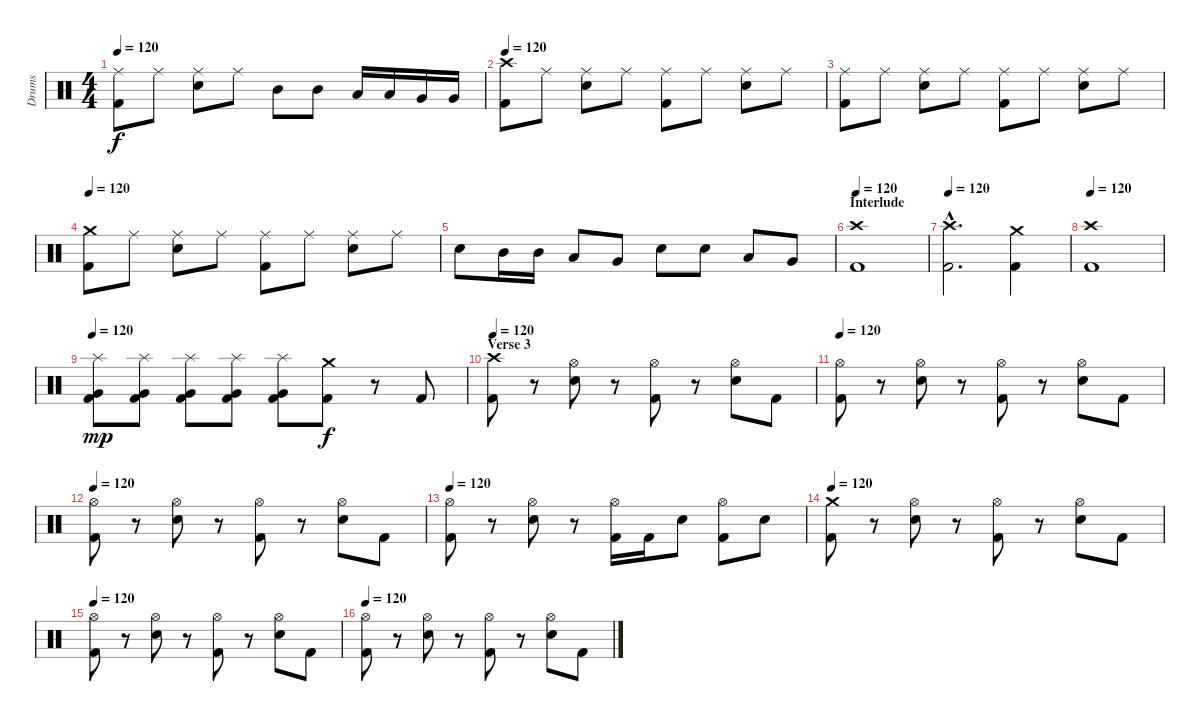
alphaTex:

\track ("Drums" "Drums") {instrument percussion}
\staff {score}
\articulation defaults
\ts (4 4)
\tempo 120
\clef neutral
\ks c
("Ride (middle)" "Kick (hit) 2").8{dy f} "Ride (middle)".8 ("Ride (middle)" "Electric Snare (hit)").8 "Ride (middle)".8 "Mid Tom (hit)".8 "Mid Tom (hit)".8 "Low Tom (hit)".16 "Low Tom (hit)".16 "Very Low Tom (hit)".16 "Very Low Tom (hit)".16 |
\tempo 120
("Crash high (hit)" "Kick (hit) 2").8 "Ride (middle)".8 ("Ride (middle)" "Electric Snare (hit)").8 "Ride (middle)".8 ("Ride (middle)" "Kick (hit) 2").8 "Ride (middle)".8 ("Ride (middle)" "Electric Snare (hit)").8 "Ride (middle)".8 |
("Ride (middle)" "Kick (hit) 2").8 "Ride (middle)".8 ("Ride (middle)" "Electric Snare (hit)").8 "Ride (middle)".8 ("Ride (middle)" "Kick (hit) 2").8 "Ride (middle)".8 ("Ride (middle)" "Electric Snare (hit)").8 "Ride (middle)".8 |
\tempo 120
("Crash medium (hit)" "Kick (hit) 2").8 "Ride (middle)".8 ("Ride (middle)" "Electric Snare (hit)").8 "Ride (middle)".8 ("Ride (middle)" "Kick (hit) 2").8 "Ride (middle)".8 ("Ride (middle)" "Electric Snare (hit)").8 "Ride (middle)".8 |
"Electric Snare (hit)".8 "Mid Tom (hit)".16 "Mid Tom (hit)".16 "Low Tom (hit)".8 "Very Low Tom (hit)".8 "Electric Snare (hit)".8 "Electric Snare (hit)".8 "Low Tom (hit)".8 "Very Low Tom (hit)".8 |
\section ("" "Interlude")
\tempo 120
("Crash high (hit)" "Kick (hit) 2").1 |
\tempo 120
("Crash high (hit)"{hac} "Kick (hit) 2"{hac}).2{d} ("Crash medium (hit)" "Kick (hit) 2").4 |
\tempo 120
("Crash high (hit)" "Kick (hit) 2").1 |
\tempo 120
("Splash (hit)" "Very Low Tom (hit)" "Kick (hit) 2").8{dy mp} ("Splash (hit)" "Very Low Tom (hit)" "Kick (hit) 2").8 ("Splash (hit)" "Very Low Tom (hit)" "Kick (hit) 2").8 ("Splash (hit)" "Very Low Tom (hit)" "Kick (hit) 2").8 ("Splash (hit)" "Very Low Tom (hit)" "Kick (hit) 2").8 ("Crash medium (hit)" "Kick (hit) 2").8{dy f} r.8 "Kick (hit) 2".8 |
\section ("" "Verse 3")
\tempo 120
("Crash high (hit)" "Kick (hit) 2").8 r.8 ("Hi-Hat (open)" "Electric Snare (hit)").8 r.8 ("Hi-Hat (open)" "Kick (hit) 2").8 r.8 ("Hi-Hat (open)" "Electric Snare (hit)").8 "Kick (hit) 2".8 |
\tempo 120
("Hi-Hat (open)" "Kick (hit) 2").8 r.8 ("Hi-Hat (open)" "Electric Snare (hit)").8 r.8 ("Hi-Hat (open)" "Kick (hit) 2").8 r.8 ("Hi-Hat (open)" "Electric Snare (hit)").8 "Kick (hit) 2".8 |
\tempo 120
("Hi-Hat (open)" "Kick (hit) 2").8 r.8 ("Hi-Hat (open)" "Electric Snare (hit)").8 r.8 ("Hi-Hat (open)" "Kick (hit) 2").8 r.8 ("Hi-Hat (open)" "Electric Snare (hit)").8 "Kick (hit) 2".8 |
\tempo 120
("Hi-Hat (open)" "Kick (hit) 2").8 r.8 ("Hi-Hat (open)" "Electric Snare (hit)").8 r.8 ("Hi-Hat (open)" "Kick (hit) 2").16 "Kick (hit) 2".16 "Electric Snare (hit)".8 ("Hi-Hat (open)" "Kick (hit) 2").8 "Electric Snare (hit)".8 |
\tempo 120
("Crash medium (hit)" "Kick (hit) 2").8 r.8 ("Hi-Hat (open)" "Electric Snare (hit)").8 r.8 ("Hi-Hat (open)" "Kick (hit) 2").8 r.8 ("Hi-Hat (open)" "Electric Snare (hit)").8 "Kick (hit) 2".8 |
\tempo 120
("Hi-Hat (open)" "Kick (hit) 2").8 r.8 ("Hi-Hat (open)" "Electric Snare (hit)").8 r.8 ("Hi-Hat (open)" "Kick (hit) 2").8 r.8 ("Hi-Hat (open)" "Electric Snare (hit)").8 "Kick (hit) 2".8 |
\tempo 120
("Hi-Hat (open)" "Kick (hit) 2").8 r.8 ("Hi-Hat (open)" "Electric Snare (hit)").8 r.8 ("Hi-Hat (open)" "Kick (hit) 2").8 r.8 ("Hi-Hat (open)" "Electric Snare (hit)").8 "Kick (hit) 2".8
